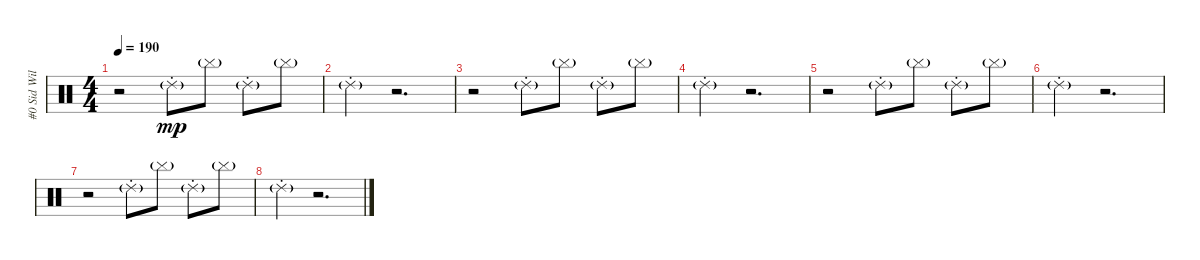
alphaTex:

\track ("#0 Sid Wilson" "#0 Sid Wil") {instrument percussion}
\staff {score}
\articulation defaults
\ts (4 4)
\tempo 190
\clef neutral
\ks c
r.2{dy mp} "Ride (choke) 2"{g}.8 "Cymbal (hit)"{g}.8 "Ride (choke) 2"{g}.8 "Cymbal (hit)"{g}.8 |
"Ride (choke) 2"{g}.4 r.2{d} |
r.2 "Ride (choke) 2"{g}.8 "Cymbal (hit)"{g}.8 "Ride (choke) 2"{g}.8 "Cymbal (hit)"{g}.8 |
"Ride (choke) 2"{g}.4 r.2{d} |
r.2 "Ride (choke) 2"{g}.8 "Cymbal (hit)"{g}.8 "Ride (choke) 2"{g}.8 "Cymbal (hit)"{g}.8 |
"Ride (choke) 2"{g}.4 r.2{d} |
r.2 "Ride (choke) 2"{g}.8 "Cymbal (hit)"{g}.8 "Ride (choke) 2"{g}.8 "Cymbal (hit)"{g}.8 |
"Ride (choke) 2"{g}.4 r.2{d}
